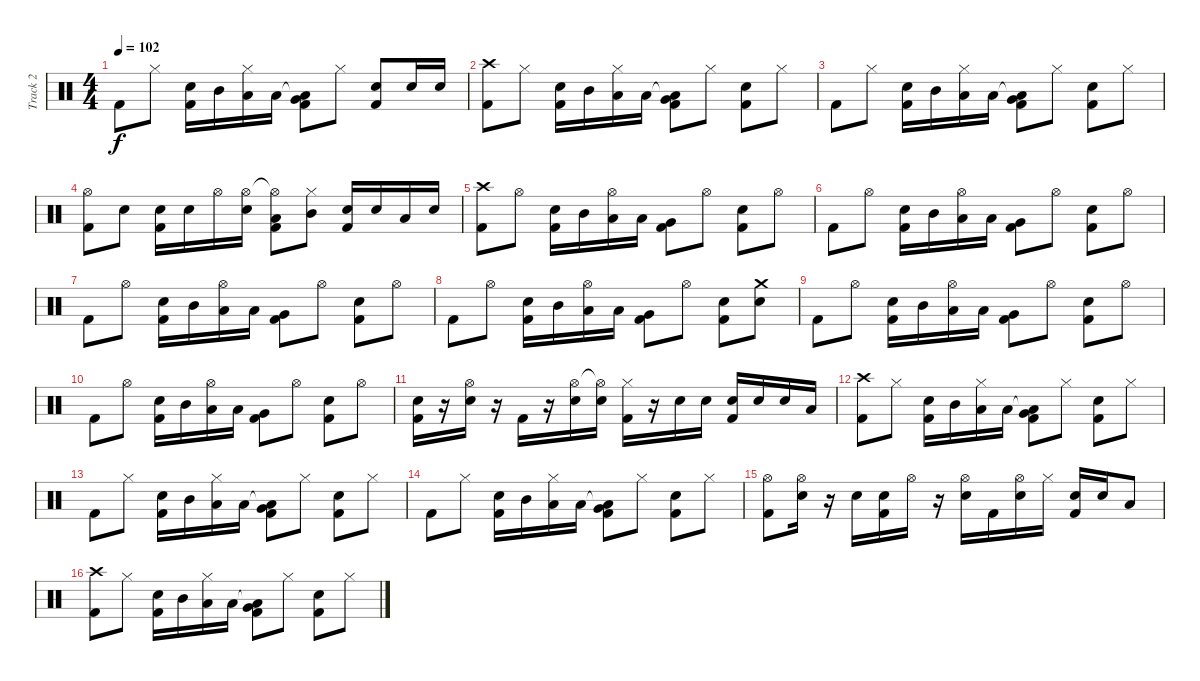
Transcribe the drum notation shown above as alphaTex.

\track ("Track 2" "Track 2") {instrument percussion}
\staff {score}
\articulation defaults
\ts (4 4)
\tempo 102
\clef neutral
\ks c "Kick (hit) 2".8{dy f} "Hi-Hat (closed)".8
("Electric Snare (hit)" "Kick (hit) 2").16 "Mid Tom (hit)".16 ("Hi-Hat (closed)" "Low Tom (hit)").16 "Low Tom (hit)".16 ("Low Tom (hit)"{t} "Very Low Tom (hit)" "Kick (hit) 2").8 "Hi-Hat (closed)".8 ("Electric Snare (hit)" "Kick (hit) 2").8 "Electric Snare (hit)".16 "Electric Snare (hit)".16 |
("Crash high (hit)" "Kick (hit) 2").8 "Hi-Hat (closed)".8 ("Electric Snare (hit)" "Kick (hit) 2").16 "Mid Tom (hit)".16 ("Hi-Hat (closed)" "Low Tom (hit)").16 "Low Tom (hit)".16 ("Low Tom (hit)"{t} "Very Low Tom (hit)" "Kick (hit) 2").8 "Hi-Hat (closed)".8 ("Electric Snare (hit)" "Kick (hit) 2").8 "Hi-Hat (closed)".8 |
"Kick (hit) 2".8 "Hi-Hat (closed)".8 ("Electric Snare (hit)" "Kick (hit) 2").16 "Mid Tom (hit)".16 ("Hi-Hat (closed)" "Low Tom (hit)").16 "Low Tom (hit)".16 ("Low Tom (hit)"{t} "Very Low Tom (hit)" "Kick (hit) 2").8 "Hi-Hat (closed)".8 ("Electric Snare (hit)" "Kick (hit) 2").8 "Hi-Hat (closed)".8 |
("Hi-Hat (open)" "Kick (hit) 2").8 "Electric Snare (hit)".8 ("Electric Snare (hit)" "Kick (hit) 2").16 "Electric Snare (hit)".16 "Hi-Hat (open)".16 ("Hi-Hat (open)" "Electric Snare (hit)").16 ("Hi-Hat (open)"{t} "Low Tom (hit)" "Kick (hit) 2").8 ("Hi-Hat (closed)" "Mid Tom (hit)").8 ("Electric Snare (hit)" "Kick (hit) 2").16 "Electric Snare (hit)".16 "Low Tom (hit)".16 "Electric Snare (hit)".16 |
("Crash high (hit)" "Kick (hit) 2").8 "Hi-Hat (open)".8 ("Electric Snare (hit)" "Kick (hit) 2").16 "Mid Tom (hit)".16 ("Hi-Hat (open)" "Low Tom (hit)").16 "Low Tom (hit)".16 ("Very Low Tom (hit)" "Kick (hit) 2").8 "Hi-Hat (open)".8 ("Electric Snare (hit)" "Kick (hit) 2").8 "Hi-Hat (open)".8 |
"Kick (hit) 2".8 "Hi-Hat (open)".8 ("Electric Snare (hit)" "Kick (hit) 2").16 "Mid Tom (hit)".16 ("Hi-Hat (open)" "Low Tom (hit)").16 "Low Tom (hit)".16 ("Very Low Tom (hit)" "Kick (hit) 2").8 "Hi-Hat (open)".8 ("Electric Snare (hit)" "Kick (hit) 2").8 "Hi-Hat (open)".8 |
"Kick (hit) 2".8 "Hi-Hat (open)".8 ("Electric Snare (hit)" "Kick (hit) 2").16 "Mid Tom (hit)".16 ("Hi-Hat (open)" "Low Tom (hit)").16 "Low Tom (hit)".16 ("Very Low Tom (hit)" "Kick (hit) 2").8 "Hi-Hat (open)".8 ("Electric Snare (hit)" "Kick (hit) 2").8 "Hi-Hat (open)".8 |
"Kick (hit) 2".8 "Hi-Hat (open)".8 ("Electric Snare (hit)" "Kick (hit) 2").16 "Mid Tom (hit)".16 ("Hi-Hat (open)" "Low Tom (hit)").16 "Low Tom (hit)".16 ("Very Low Tom (hit)" "Kick (hit) 2").8 "Hi-Hat (open)".8 ("Electric Snare (hit)" "Kick (hit) 2").8 ("Crash medium (hit)" "Electric Snare (hit)").8 |
"Kick (hit) 2".8 "Hi-Hat (open)".8 ("Electric Snare (hit)" "Kick (hit) 2").16 "Mid Tom (hit)".16 ("Hi-Hat (open)" "Low Tom (hit)").16 "Low Tom (hit)".16 ("Very Low Tom (hit)" "Kick (hit) 2").8 "Hi-Hat (open)".8 ("Electric Snare (hit)" "Kick (hit) 2").8 "Hi-Hat (open)".8 |
"Kick (hit) 2".8 "Hi-Hat (open)".8 ("Electric Snare (hit)" "Kick (hit) 2").16 "Mid Tom (hit)".16 ("Hi-Hat (open)" "Low Tom (hit)").16 "Low Tom (hit)".16 ("Very Low Tom (hit)" "Kick (hit) 2").8 "Hi-Hat (open)".8 ("Electric Snare (hit)" "Kick (hit) 2").8 "Hi-Hat (open)".8 |
("Electric Snare (hit)" "Kick (hit) 2").16 r.16 ("Hi-Hat (open)" "Electric Snare (hit)").16 r.16 "Kick (hit) 2".16 r.16 ("Hi-Hat (open)" "Electric Snare (hit)").16 ("Hi-Hat (open)"{t} "Electric Snare (hit)").16 ("Hi-Hat (closed)" "Kick (hit) 2").16 r.16 "Electric Snare (hit)".16 "Electric Snare (hit)".16 ("Electric Snare (hit)" "Kick (hit) 2").16 "Electric Snare (hit)".16 "Electric Snare (hit)".16 "Low Tom (hit)".16 |
("Crash high (hit)" "Kick (hit) 2").8 "Hi-Hat (closed)".8 ("Electric Snare (hit)" "Kick (hit) 2").16 "Mid Tom (hit)".16 ("Hi-Hat (closed)" "Low Tom (hit)").16 "Low Tom (hit)".16 ("Low Tom (hit)"{t} "Very Low Tom (hit)" "Kick (hit) 2").8 "Hi-Hat (closed)".8 ("Electric Snare (hit)" "Kick (hit) 2").8 "Hi-Hat (closed)".8 |
"Kick (hit) 2".8 "Hi-Hat (closed)".8 ("Electric Snare (hit)" "Kick (hit) 2").16 "Mid Tom (hit)".16 ("Hi-Hat (closed)" "Low Tom (hit)").16 "Low Tom (hit)".16 ("Low Tom (hit)"{t} "Very Low Tom (hit)" "Kick (hit) 2").8 "Hi-Hat (closed)".8 ("Electric Snare (hit)" "Kick (hit) 2").8 "Hi-Hat (closed)".8 |
"Kick (hit) 2".8 "Hi-Hat (closed)".8 ("Electric Snare (hit)" "Kick (hit) 2").16 "Mid Tom (hit)".16 ("Hi-Hat (closed)" "Low Tom (hit)").16 "Low Tom (hit)".16 ("Low Tom (hit)"{t} "Very Low Tom (hit)" "Kick (hit) 2").8 "Hi-Hat (closed)".8 ("Electric Snare (hit)" "Kick (hit) 2").8 "Hi-Hat (closed)".8 |
("Hi-Hat (open)" "Kick (hit) 2").8 ("Hi-Hat (open)" "Electric Snare (hit)").16 r.16 "Electric Snare (hit)".16 ("Electric Snare (hit)" "Kick (hit) 2").16 "Hi-Hat (open)".16 r.16 ("Hi-Hat (open)" "Electric Snare (hit)").16 "Kick (hit) 2".16 ("Hi-Hat (open)" "Electric Snare (hit)").16 "Hi-Hat (closed)".16 ("Electric Snare (hit)" "Kick (hit) 2").16 "Electric Snare (hit)".16 "Low Tom (hit)".8 |
("Crash high (hit)" "Kick (hit) 2").8 "Hi-Hat (closed)".8 ("Electric Snare (hit)" "Kick (hit) 2").16 "Mid Tom (hit)".16 ("Hi-Hat (closed)" "Low Tom (hit)").16 "Low Tom (hit)".16 ("Low Tom (hit)"{t} "Very Low Tom (hit)" "Kick (hit) 2").8 "Hi-Hat (closed)".8 ("Electric Snare (hit)" "Kick (hit) 2").8 "Hi-Hat (closed)".8
